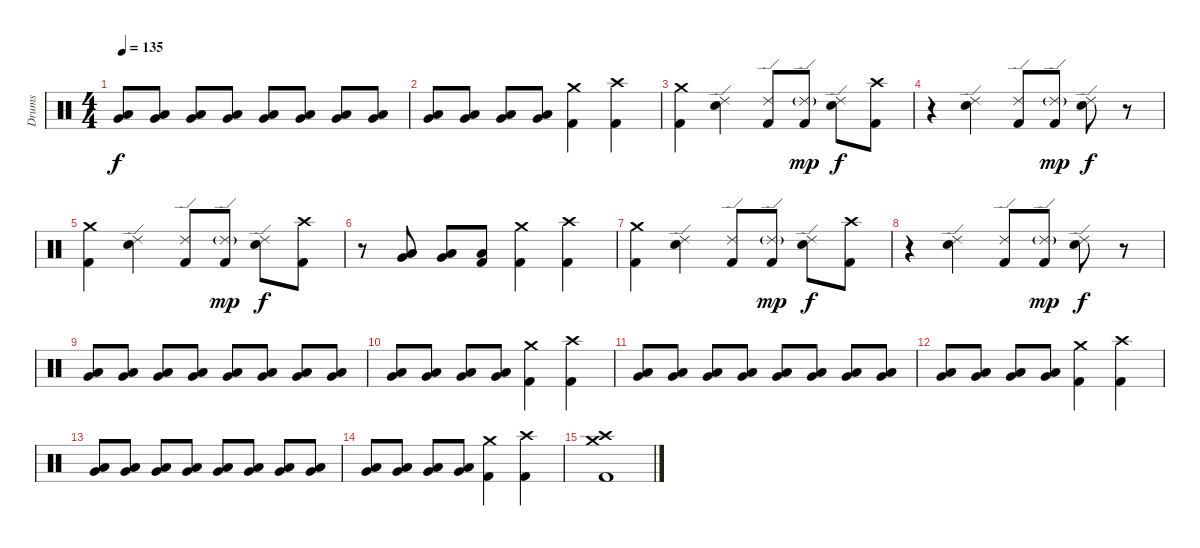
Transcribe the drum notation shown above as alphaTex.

\track ("Drums" "Drums") {instrument percussion}
\staff {score}
\articulation defaults
\ts (4 4)
\tempo 135
\clef neutral
\ks c
("Very Low Tom (hit)" "Low Floor Tom (hit)").8{dy f} ("Very Low Tom (hit)" "Low Floor Tom (hit)").8 ("Very Low Tom (hit)" "Low Floor Tom (hit)").8 ("Very Low Tom (hit)" "Low Floor Tom (hit)").8 ("Very Low Tom (hit)" "Low Floor Tom (hit)").8 ("Very Low Tom (hit)" "Low Floor Tom (hit)").8 ("Very Low Tom (hit)" "Low Floor Tom (hit)").8 ("Very Low Tom (hit)" "Low Floor Tom (hit)").8 |
("Very Low Tom (hit)" "Low Floor Tom (hit)").8 ("Very Low Tom (hit)" "Low Floor Tom (hit)").8 ("Very Low Tom (hit)" "Low Floor Tom (hit)").8 ("Very Low Tom (hit)" "Low Floor Tom (hit)").8 ("Crash medium (hit)" "Kick (hit) 2").4 ("Crash high (hit)" "Kick (hit) 2").4 |
("Kick (hit) 2" "Crash medium (hit)").4 ("Ride (edge) 2" "Electric Snare (hit)").4 ("Ride (edge) 2" "Kick (hit) 2").8 ("Ride (edge) 2"{g} "Kick (hit) 2").8{dy mp} ("Ride (edge) 2" "Electric Snare (hit)").8{dy f} ("Crash high (hit)" "Kick (hit) 2").8 |
r.4 ("Ride (edge) 2" "Electric Snare (hit)").4 ("Ride (edge) 2" "Kick (hit) 2").8 ("Ride (edge) 2"{g} "Kick (hit) 2").8{dy mp} ("Ride (edge) 2" "Electric Snare (hit)").8{dy f} r.8 |
("Crash medium (hit)" "Kick (hit) 2").4 ("Ride (edge) 2" "Electric Snare (hit)").4 ("Ride (edge) 2" "Kick (hit) 2").8 ("Ride (edge) 2"{g} "Kick (hit) 2").8{dy mp} ("Ride (edge) 2" "Electric Snare (hit)").8{dy f} ("Crash high (hit)" "Kick (hit) 2").8 |
r.8 ("Very Low Tom (hit)" "Low Tom (hit)").8 ("Low Floor Tom (hit)" "Very Low Tom (hit)").8 ("Kick (hit) 2" "Low Floor Tom (hit)").8 ("Crash medium (hit)" "Kick (hit) 2").4 ("Kick (hit) 2" "Crash high (hit)").4 |
("Kick (hit) 2" "Crash medium (hit)").4 ("Ride (edge) 2" "Electric Snare (hit)").4 ("Ride (edge) 2" "Kick (hit) 2").8 ("Ride (edge) 2"{g} "Kick (hit) 2").8{dy mp} ("Ride (edge) 2" "Electric Snare (hit)").8{dy f} ("Crash high (hit)" "Kick (hit) 2").8 |
r.4 ("Ride (edge) 2" "Electric Snare (hit)").4 ("Ride (edge) 2" "Kick (hit) 2").8 ("Ride (edge) 2"{g} "Kick (hit) 2").8{dy mp} ("Ride (edge) 2" "Electric Snare (hit)").8{dy f} r.8 |
("Very Low Tom (hit)" "Low Floor Tom (hit)").8 ("Very Low Tom (hit)" "Low Floor Tom (hit)").8 ("Very Low Tom (hit)" "Low Floor Tom (hit)").8 ("Very Low Tom (hit)" "Low Floor Tom (hit)").8 ("Very Low Tom (hit)" "Low Floor Tom (hit)").8 ("Very Low Tom (hit)" "Low Floor Tom (hit)").8 ("Very Low Tom (hit)" "Low Floor Tom (hit)").8 ("Very Low Tom (hit)" "Low Floor Tom (hit)").8 |
("Very Low Tom (hit)" "Low Floor Tom (hit)").8 ("Very Low Tom (hit)" "Low Floor Tom (hit)").8 ("Very Low Tom (hit)" "Low Floor Tom (hit)").8 ("Very Low Tom (hit)" "Low Floor Tom (hit)").8 ("Crash medium (hit)" "Kick (hit) 2").4 ("Crash high (hit)" "Kick (hit) 2").4 |
("Very Low Tom (hit)" "Low Floor Tom (hit)").8 ("Very Low Tom (hit)" "Low Floor Tom (hit)").8 ("Very Low Tom (hit)" "Low Floor Tom (hit)").8 ("Very Low Tom (hit)" "Low Floor Tom (hit)").8 ("Very Low Tom (hit)" "Low Floor Tom (hit)").8 ("Very Low Tom (hit)" "Low Floor Tom (hit)").8 ("Very Low Tom (hit)" "Low Floor Tom (hit)").8 ("Very Low Tom (hit)" "Low Floor Tom (hit)").8 |
("Very Low Tom (hit)" "Low Floor Tom (hit)").8 ("Very Low Tom (hit)" "Low Floor Tom (hit)").8 ("Very Low Tom (hit)" "Low Floor Tom (hit)").8 ("Very Low Tom (hit)" "Low Floor Tom (hit)").8 ("Crash medium (hit)" "Kick (hit) 2").4 ("Crash high (hit)" "Kick (hit) 2").4 |
("Very Low Tom (hit)" "Low Floor Tom (hit)").8 ("Very Low Tom (hit)" "Low Floor Tom (hit)").8 ("Very Low Tom (hit)" "Low Floor Tom (hit)").8 ("Very Low Tom (hit)" "Low Floor Tom (hit)").8 ("Very Low Tom (hit)" "Low Floor Tom (hit)").8 ("Very Low Tom (hit)" "Low Floor Tom (hit)").8 ("Very Low Tom (hit)" "Low Floor Tom (hit)").8 ("Very Low Tom (hit)" "Low Floor Tom (hit)").8 |
("Very Low Tom (hit)" "Low Floor Tom (hit)").8 ("Very Low Tom (hit)" "Low Floor Tom (hit)").8 ("Very Low Tom (hit)" "Low Floor Tom (hit)").8 ("Very Low Tom (hit)" "Low Floor Tom (hit)").8 ("Crash medium (hit)" "Kick (hit) 2").4 ("Crash high (hit)" "Kick (hit) 2").4 |
("Crash high (hit)" "Crash medium (hit)" "Kick (hit) 2").1
